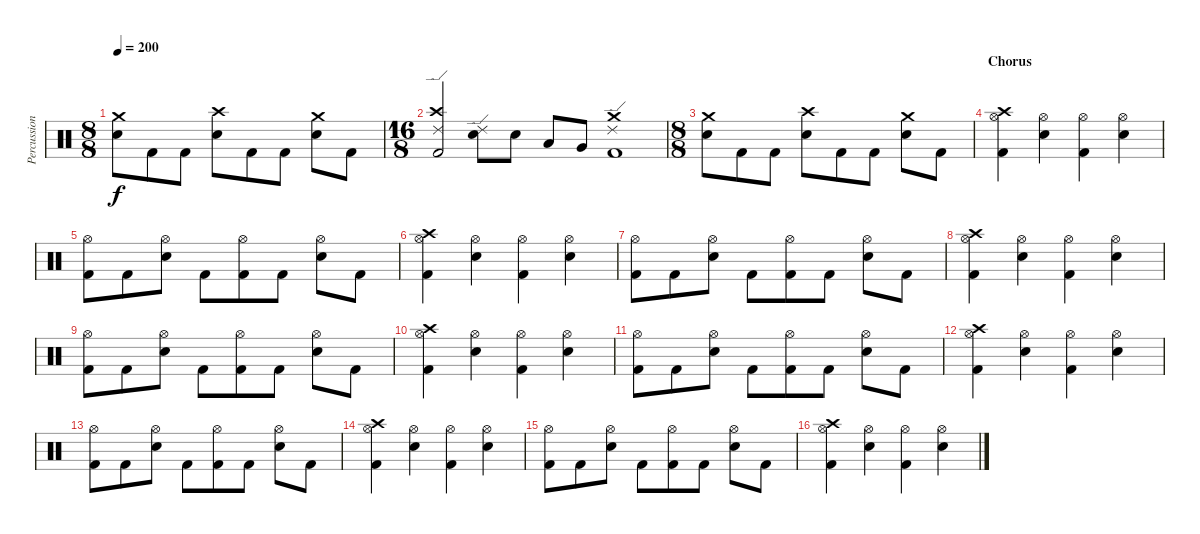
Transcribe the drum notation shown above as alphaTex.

\track ("Percussions" "Percussion") {instrument percussion}
\staff {score}
\articulation defaults
\ts (8 8)
\tempo 200
\clef neutral
\ks c
("Crash medium (hit)" "Electric Snare (hit)").8{dy f} "Kick (hit) 2".8 "Kick (hit) 2".8 ("Crash high (hit)" "Electric Snare (hit)").8 "Kick (hit) 2".8 "Kick (hit) 2".8 ("Crash medium (hit)" "Electric Snare (hit)").8 "Kick (hit) 2".8 |
\ts (16 8)
("Crash high (hit)" "Ride (edge) 2" "Kick (hit) 2").2 ("Ride (edge) 2" "Electric Snare (hit)").8 "Electric Snare (hit)".8 "Low Tom (hit)".8 "Very Low Tom (hit)".8 ("Crash medium (hit)" "Ride (edge) 2" "Kick (hit) 2").1 |
\ts (8 8)
("Crash medium (hit)" "Electric Snare (hit)").8 "Kick (hit) 2".8 "Kick (hit) 2".8 ("Crash high (hit)" "Electric Snare (hit)").8 "Kick (hit) 2".8 "Kick (hit) 2".8 ("Crash medium (hit)" "Electric Snare (hit)").8 "Kick (hit) 2".8 |
\section ("" "Chorus")
("Crash high (hit)" "Hi-Hat (open)" "Kick (hit) 2").4 ("Hi-Hat (open)" "Electric Snare (hit)").4 ("Hi-Hat (open)" "Kick (hit) 2").4 ("Hi-Hat (open)" "Electric Snare (hit)").4 |
("Hi-Hat (open)" "Kick (hit) 2").8 "Kick (hit) 2".8 ("Hi-Hat (open)" "Electric Snare (hit)").8 "Kick (hit) 2".8 ("Hi-Hat (open)" "Kick (hit) 2").8 "Kick (hit) 2".8 ("Hi-Hat (open)" "Electric Snare (hit)").8 "Kick (hit) 2".8 |
("Crash high (hit)" "Hi-Hat (open)" "Kick (hit) 2").4 ("Hi-Hat (open)" "Electric Snare (hit)").4 ("Hi-Hat (open)" "Kick (hit) 2").4 ("Hi-Hat (open)" "Electric Snare (hit)").4 |
("Hi-Hat (open)" "Kick (hit) 2").8 "Kick (hit) 2".8 ("Hi-Hat (open)" "Electric Snare (hit)").8 "Kick (hit) 2".8 ("Hi-Hat (open)" "Kick (hit) 2").8 "Kick (hit) 2".8 ("Hi-Hat (open)" "Electric Snare (hit)").8 "Kick (hit) 2".8 |
("Crash high (hit)" "Hi-Hat (open)" "Kick (hit) 2").4 ("Hi-Hat (open)" "Electric Snare (hit)").4 ("Hi-Hat (open)" "Kick (hit) 2").4 ("Hi-Hat (open)" "Electric Snare (hit)").4 |
("Hi-Hat (open)" "Kick (hit) 2").8 "Kick (hit) 2".8 ("Hi-Hat (open)" "Electric Snare (hit)").8 "Kick (hit) 2".8 ("Hi-Hat (open)" "Kick (hit) 2").8 "Kick (hit) 2".8 ("Hi-Hat (open)" "Electric Snare (hit)").8 "Kick (hit) 2".8 |
("Crash high (hit)" "Hi-Hat (open)" "Kick (hit) 2").4 ("Hi-Hat (open)" "Electric Snare (hit)").4 ("Hi-Hat (open)" "Kick (hit) 2").4 ("Hi-Hat (open)" "Electric Snare (hit)").4 |
("Hi-Hat (open)" "Kick (hit) 2").8 "Kick (hit) 2".8 ("Hi-Hat (open)" "Electric Snare (hit)").8 "Kick (hit) 2".8 ("Hi-Hat (open)" "Kick (hit) 2").8 "Kick (hit) 2".8 ("Hi-Hat (open)" "Electric Snare (hit)").8 "Kick (hit) 2".8 |
("Crash high (hit)" "Hi-Hat (open)" "Kick (hit) 2").4 ("Hi-Hat (open)" "Electric Snare (hit)").4 ("Hi-Hat (open)" "Kick (hit) 2").4 ("Hi-Hat (open)" "Electric Snare (hit)").4 |
("Hi-Hat (open)" "Kick (hit) 2").8 "Kick (hit) 2".8 ("Hi-Hat (open)" "Electric Snare (hit)").8 "Kick (hit) 2".8 ("Hi-Hat (open)" "Kick (hit) 2").8 "Kick (hit) 2".8 ("Hi-Hat (open)" "Electric Snare (hit)").8 "Kick (hit) 2".8 |
("Crash high (hit)" "Hi-Hat (open)" "Kick (hit) 2").4 ("Hi-Hat (open)" "Electric Snare (hit)").4 ("Hi-Hat (open)" "Kick (hit) 2").4 ("Hi-Hat (open)" "Electric Snare (hit)").4 |
("Hi-Hat (open)" "Kick (hit) 2").8 "Kick (hit) 2".8 ("Hi-Hat (open)" "Electric Snare (hit)").8 "Kick (hit) 2".8 ("Hi-Hat (open)" "Kick (hit) 2").8 "Kick (hit) 2".8 ("Hi-Hat (open)" "Electric Snare (hit)").8 "Kick (hit) 2".8 |
("Crash high (hit)" "Hi-Hat (open)" "Kick (hit) 2").4 ("Hi-Hat (open)" "Electric Snare (hit)").4 ("Hi-Hat (open)" "Kick (hit) 2").4 ("Hi-Hat (open)" "Electric Snare (hit)").4
